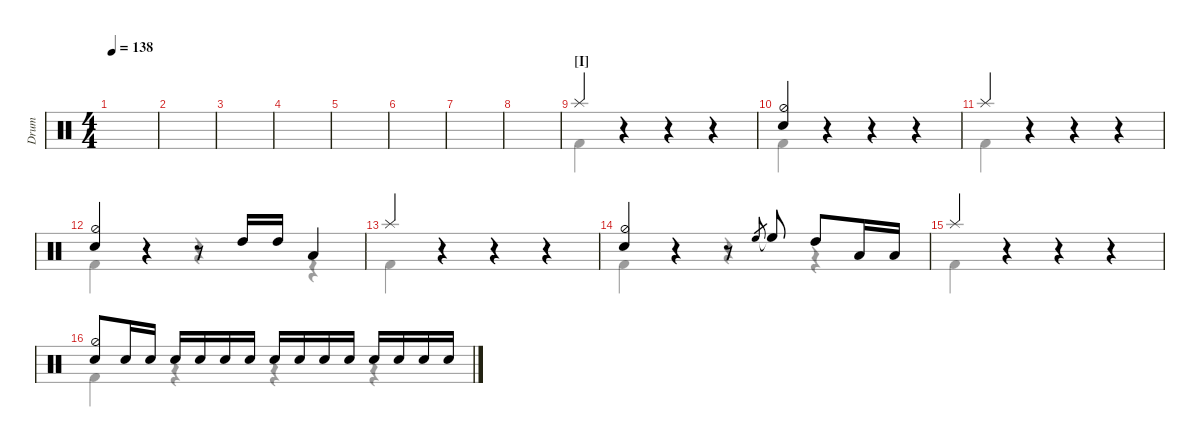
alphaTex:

\defaultSystemsLayout 4
\hideDynamics
\bracketExtendMode nobrackets
\track ("Drumkit" "Drum") {instrument percussion}
\staff {score}
\articulation defaults
\voice
\ts (4 4)
\tempo 138
\clef neutral
\ks c
|
|
|
|
|
|
|
|
\section ("I" "")
"Splash (hit)".4{beam Up} r.4{beam Up} r.4{beam Up} r.4{beam Up} |
("Snare (hit) 2" "Hi-Hat (half)").4{beam Up} r.4{beam Up} r.4{beam Up} r.4{beam Up} |
"Splash (hit)".4{beam Up} r.4{beam Up} r.4{beam Up} r.4{beam Up} |
("Snare (hit) 2" "Hi-Hat (half)").4{beam Up} r.4{beam Up} r.8{beam Up} "High Tom (hit)".16{beam Up} "High Tom (hit)".16{beam Up} "Low Tom (hit)".4{beam Up} |
"Splash (hit)".4{beam Up} r.4{beam Up} r.4{beam Up} r.4{beam Up} |
("Snare (hit) 2" "Hi-Hat (half)").4{beam Up} r.4{beam Up} r.8{beam Up} "High Floor Tom (hit)".8{gr beam Up} "High Floor Tom (hit)"{t}.8{beam Up} "High Tom (hit)".8{beam Up} "Low Tom (hit)".16{beam Up} "Low Tom (hit)".16{beam Up} |
"Splash (hit)".4{beam Up} r.4{beam Up} r.4{beam Up} r.4{beam Up} |
("Snare (hit) 2" "Hi-Hat (half)").8{beam Up} "Snare (hit) 2".16{beam Up} "Snare (hit) 2".16{beam Up} "Snare (hit) 2".16{beam Up} "Snare (hit) 2".16{beam Up} "Snare (hit) 2".16{beam Up} "Snare (hit) 2".16{beam Up} "Snare (hit) 2".16{beam Up} "Snare (hit) 2".16{beam Up} "Snare (hit) 2".16{beam Up} "Snare (hit) 2".16{beam Up} "Snare (hit) 2".16{beam Up} "Snare (hit) 2".16{beam Up} "Snare (hit) 2".16{beam Up} "Snare (hit) 2".16{beam Up}
\voice
\clef neutral
\ottava regular
\simile none
\ks c
|
|
|
|
|
|
|
|
|
|
|
|
|
|
|
\voice
\clef neutral
\ottava regular
\simile none
\ks c
|
|
|
|
|
|
|
|
"Kick (hit) 2".4{beam Down} r.4{beam Down} r.4{beam Down} r.4{beam Down} |
"Kick (hit) 2".4{beam Down} r.4{beam Down} r.4{beam Down} r.4{beam Down} |
"Kick (hit) 2".4{beam Down} r.4{beam Down} r.4{beam Down} r.4{beam Down} |
"Kick (hit) 2".4{beam Down} r.4{beam Down} r.4{beam Down} r.4{beam Down} |
"Kick (hit) 2".4{beam Down} r.4{beam Down} r.4{beam Down} r.4{beam Down} |
"Kick (hit) 2".4{beam Down} r.4{beam Down} r.4{beam Down} r.4{beam Down} |
"Kick (hit) 2".4{beam Down} r.4{beam Down} r.4{beam Down} r.4{beam Down} |
"Kick (hit) 2".4{beam Down} r.4{beam Down} r.4{beam Down} r.4{beam Down}
